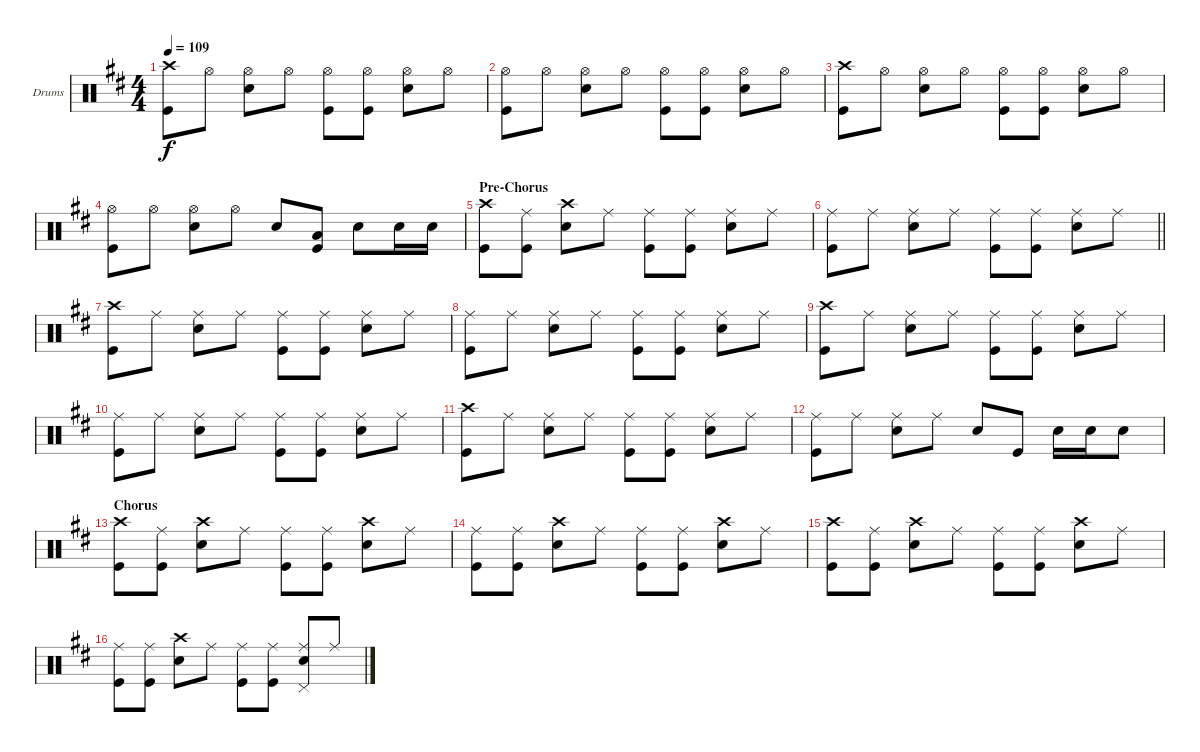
\bracketExtendMode groupsimilarinstruments
\firstSystemTrackNameOrientation horizontal
\otherSystemsTrackNameOrientation horizontal
\track ("Drumkit" "Drums") {instrument percussion}
\staff {score}
\articulation defaults
\ts (4 4)
\tempo 109
\clef neutral
\ks d
("Kick (hit)" "Crash high (hit)").8{dy f} "Hi-Hat (open)".8 ("Snare (hit) 2" "Hi-Hat (open)").8 "Hi-Hat (open)".8 ("Kick (hit)" "Hi-Hat (open)").8 ("Kick (hit)" "Hi-Hat (open)").8 ("Snare (hit) 2" "Hi-Hat (open)").8 "Hi-Hat (open)".8 |
("Kick (hit)" "Hi-Hat (open)").8 "Hi-Hat (open)".8 ("Snare (hit) 2" "Hi-Hat (open)").8 "Hi-Hat (open)".8 ("Kick (hit)" "Hi-Hat (open)").8 ("Kick (hit)" "Hi-Hat (open)").8 ("Snare (hit) 2" "Hi-Hat (open)").8 "Hi-Hat (open)".8 |
("Kick (hit)" "Crash high (hit)").8 "Hi-Hat (open)".8 ("Snare (hit) 2" "Hi-Hat (open)").8 "Hi-Hat (open)".8 ("Kick (hit)" "Hi-Hat (open)").8 ("Kick (hit)" "Hi-Hat (open)").8 ("Snare (hit) 2" "Hi-Hat (open)").8 "Hi-Hat (open)".8 |
("Kick (hit)" "Hi-Hat (open)").8 "Hi-Hat (open)".8 ("Snare (hit) 2" "Hi-Hat (open)").8 "Hi-Hat (open)".8 "Snare (hit) 2".8 ("Kick (hit)" "Low Tom (hit)").8 "Snare (hit) 2".8 "Snare (hit) 2".16 "Snare (hit) 2".16 |
\section ("" "Pre-Chorus")
("Kick (hit)" "Crash high (hit)").8 ("Kick (hit)" "Ride (middle)").8 ("Snare (hit) 2" "Crash high (hit)").8 "Ride (middle)".8 ("Kick (hit)" "Ride (middle)").8 ("Kick (hit)" "Ride (middle)").8 ("Snare (hit) 2" "Ride (middle)").8 "Ride (middle)".8 |
\barLineRight lightlight
("Kick (hit)" "Ride (middle)").8 "Ride (middle)".8 ("Snare (hit) 2" "Ride (middle)").8 "Ride (middle)".8 ("Kick (hit)" "Ride (middle)").8 ("Kick (hit)" "Ride (middle)").8 ("Snare (hit) 2" "Ride (middle)").8 "Ride (middle)".8 |
("Kick (hit)" "Crash high (hit)").8 "Ride (middle)".8 ("Snare (hit) 2" "Ride (middle)").8 "Ride (middle)".8 ("Kick (hit)" "Ride (middle)").8 ("Kick (hit)" "Ride (middle)").8 ("Snare (hit) 2" "Ride (middle)").8 "Ride (middle)".8 |
("Kick (hit)" "Ride (middle)").8 "Ride (middle)".8 ("Snare (hit) 2" "Ride (middle)").8 "Ride (middle)".8 ("Kick (hit)" "Ride (middle)").8 ("Kick (hit)" "Ride (middle)").8 ("Snare (hit) 2" "Ride (middle)").8 "Ride (middle)".8 |
("Kick (hit)" "Crash high (hit)").8 "Ride (middle)".8 ("Snare (hit) 2" "Ride (middle)").8 "Ride (middle)".8 ("Kick (hit)" "Ride (middle)").8 ("Kick (hit)" "Ride (middle)").8 ("Snare (hit) 2" "Ride (middle)").8 "Ride (middle)".8 |
("Kick (hit)" "Ride (middle)").8 "Ride (middle)".8 ("Snare (hit) 2" "Ride (middle)").8 "Ride (middle)".8 ("Kick (hit)" "Ride (middle)").8 ("Kick (hit)" "Ride (middle)").8 ("Snare (hit) 2" "Ride (middle)").8 "Ride (middle)".8 |
("Kick (hit)" "Crash high (hit)").8 "Ride (middle)".8 ("Snare (hit) 2" "Ride (middle)").8 "Ride (middle)".8 ("Kick (hit)" "Ride (middle)").8 ("Kick (hit)" "Ride (middle)").8 ("Snare (hit) 2" "Ride (middle)").8 "Ride (middle)".8 |
("Kick (hit)" "Ride (middle)").8 "Ride (middle)".8 ("Snare (hit) 2" "Ride (middle)").8 "Ride (middle)".8 "Snare (hit) 2".8 "Kick (hit)".8 "Snare (hit) 2".16 "Snare (hit) 2".16 "Snare (hit) 2".8 |
\section ("" "Chorus")
("Kick (hit)" "Crash high (hit)").8 ("Kick (hit)" "Ride (middle)").8 ("Snare (hit) 2" "Crash high (hit)").8 "Ride (middle)".8 ("Kick (hit)" "Ride (middle)").8 ("Kick (hit)" "Ride (middle)").8 ("Snare (hit) 2" "Crash high (hit)").8 "Ride (middle)".8 |
("Kick (hit)" "Ride (middle)").8 ("Kick (hit)" "Ride (middle)").8 ("Snare (hit) 2" "Crash high (hit)").8 "Ride (middle)".8 ("Kick (hit)" "Ride (middle)").8 ("Kick (hit)" "Ride (middle)").8 ("Snare (hit) 2" "Crash high (hit)").8 "Ride (middle)".8 |
("Kick (hit)" "Crash high (hit)").8 ("Kick (hit)" "Ride (middle)").8 ("Snare (hit) 2" "Crash high (hit)").8 "Ride (middle)".8 ("Kick (hit)" "Ride (middle)").8 ("Kick (hit)" "Ride (middle)").8 ("Snare (hit) 2" "Crash high (hit)").8 "Ride (middle)".8 |
("Kick (hit)" "Ride (middle)").8 ("Kick (hit)" "Ride (middle)").8 ("Snare (hit) 2" "Crash high (hit)").8 "Ride (middle)".8 ("Kick (hit)" "Ride (middle)").8 ("Kick (hit)" "Ride (middle)").8 ("Snare (hit) 2" "Ride (middle)" "Pedal Hi-Hat (hit)").8 "Ride (middle)".8
